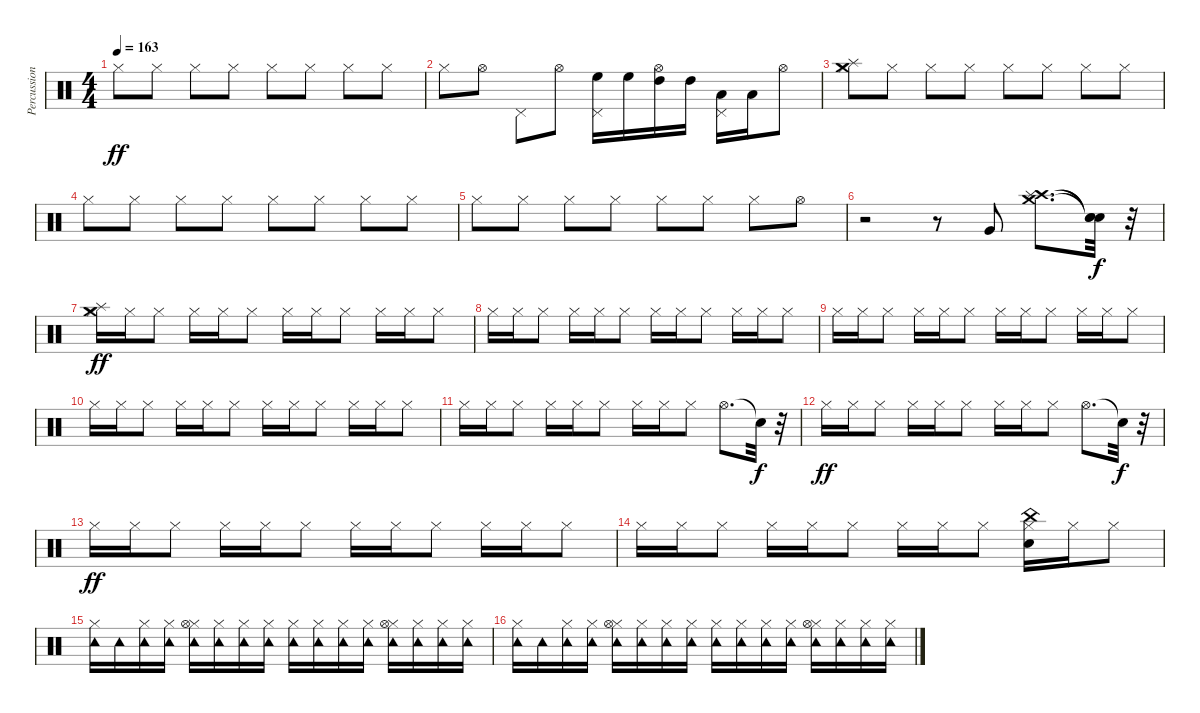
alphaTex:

\track ("Percussion (Standard Kit)" "Percussion") {instrument percussion}
\staff {score}
\articulation defaults
\ts (4 4)
\tempo 163
\clef neutral
\ks c "Hi-Hat (closed)".8{dy ff} "Hi-Hat (closed)".8 "Hi-Hat (closed)".8 "Hi-Hat (closed)".8 "Hi-Hat (closed)".8 "Hi-Hat (closed)".8 "Hi-Hat (closed)".8 "Hi-Hat (closed)".8
|
"Hi-Hat (closed)".8 "Hi-Hat (open)".8 "Pedal Hi-Hat (hit)".8 "Hi-Hat (open)".8 ("Pedal Hi-Hat (hit)" "High Floor Tom (hit)").16 "High Floor Tom (hit)".16 ("Hi-Hat (open)" "High Tom (hit)").16 "High Tom (hit)".16 ("Pedal Hi-Hat (hit)" "Low Tom (hit)").16 "Low Tom (hit)".16 "Hi-Hat (open)".8 |
("Hi-Hat (closed)" "Splash (hit)" "Crash medium (hit)").8 "Hi-Hat (closed)".8 "Hi-Hat (closed)".8 "Hi-Hat (closed)".8 "Hi-Hat (closed)".8 "Hi-Hat (closed)".8 "Hi-Hat (closed)".8 "Hi-Hat (closed)".8 |
"Hi-Hat (closed)".8 "Hi-Hat (closed)".8 "Hi-Hat (closed)".8 "Hi-Hat (closed)".8 "Hi-Hat (closed)".8 "Hi-Hat (closed)".8 "Hi-Hat (closed)".8 "Hi-Hat (closed)".8 |
"Hi-Hat (closed)".8 "Hi-Hat (closed)".8 "Hi-Hat (closed)".8 "Hi-Hat (closed)".8 "Hi-Hat (closed)".8 "Hi-Hat (closed)".8 "Hi-Hat (closed)".8 "Hi-Hat (open)".8 |
r.2 r.8 "Very Low Tom (hit)".8 ("Crash high (hit)" "Splash (hit)" "Crash medium (hit)").8{d} ("Snare (hit)"{t} "Snare (hit)"{t} "Snare (hit)"{t}).32{dy f} r.32 |
("Hi-Hat (closed)" "Splash (hit)" "Crash medium (hit)").16{dy ff} "Hi-Hat (closed)".16 "Hi-Hat (closed)".8 "Hi-Hat (closed)".16 "Hi-Hat (closed)".16 "Hi-Hat (closed)".8 "Hi-Hat (closed)".16 "Hi-Hat (closed)".16 "Hi-Hat (closed)".8 "Hi-Hat (closed)".16 "Hi-Hat (closed)".16 "Hi-Hat (closed)".8 |
"Hi-Hat (closed)".16 "Hi-Hat (closed)".16 "Hi-Hat (closed)".8 "Hi-Hat (closed)".16 "Hi-Hat (closed)".16 "Hi-Hat (closed)".8 "Hi-Hat (closed)".16 "Hi-Hat (closed)".16 "Hi-Hat (closed)".8 "Hi-Hat (closed)".16 "Hi-Hat (closed)".16 "Hi-Hat (closed)".8 |
"Hi-Hat (closed)".16 "Hi-Hat (closed)".16 "Hi-Hat (closed)".8 "Hi-Hat (closed)".16 "Hi-Hat (closed)".16 "Hi-Hat (closed)".8 "Hi-Hat (closed)".16 "Hi-Hat (closed)".16 "Hi-Hat (closed)".8 "Hi-Hat (closed)".16 "Hi-Hat (closed)".16 "Hi-Hat (closed)".8 |
"Hi-Hat (closed)".16 "Hi-Hat (closed)".16 "Hi-Hat (closed)".8 "Hi-Hat (closed)".16 "Hi-Hat (closed)".16 "Hi-Hat (closed)".8 "Hi-Hat (closed)".16 "Hi-Hat (closed)".16 "Hi-Hat (closed)".8 "Hi-Hat (closed)".16 "Hi-Hat (closed)".16 "Hi-Hat (closed)".8 |
"Hi-Hat (closed)".16 "Hi-Hat (closed)".16 "Hi-Hat (closed)".8 "Hi-Hat (closed)".16 "Hi-Hat (closed)".16 "Hi-Hat (closed)".8 "Hi-Hat (closed)".16 "Hi-Hat (closed)".16 "Hi-Hat (closed)".8 "Hi-Hat (open)".8{d} "Snare (hit)"{t}.32{dy f} r.32 |
"Hi-Hat (closed)".16{dy ff} "Hi-Hat (closed)".16 "Hi-Hat (closed)".8 "Hi-Hat (closed)".16 "Hi-Hat (closed)".16 "Hi-Hat (closed)".8 "Hi-Hat (closed)".16 "Hi-Hat (closed)".16 "Hi-Hat (closed)".8 "Hi-Hat (open)".8{d} "Snare (hit)"{t}.32{dy f} r.32 |
"Hi-Hat (closed)".16{dy ff} "Hi-Hat (closed)".16 "Hi-Hat (closed)".8 "Hi-Hat (closed)".16 "Hi-Hat (closed)".16 "Hi-Hat (closed)".8 "Hi-Hat (closed)".16 "Hi-Hat (closed)".16 "Hi-Hat (closed)".8 "Hi-Hat (closed)".16 "Hi-Hat (closed)".16 "Hi-Hat (closed)".8 |
"Hi-Hat (closed)".16 "Hi-Hat (closed)".16 "Hi-Hat (closed)".8 "Hi-Hat (closed)".16 "Hi-Hat (closed)".16 "Hi-Hat (closed)".8 "Hi-Hat (closed)".16 "Hi-Hat (closed)".16 "Hi-Hat (closed)".8 ("Electric Snare (hit)" "Hi-Hat (closed)" "China (hit)").16 "Hi-Hat (closed)".16 "Hi-Hat (closed)".8 |
("Hi-Hat (closed)" "Tambourine (hit)").16 "Tambourine (hit)".16 ("Hi-Hat (closed)" "Tambourine (hit)").16 ("Hi-Hat (closed)" "Tambourine (hit)").16 ("Hi-Hat (closed)" "Hi-Hat (open)" "Tambourine (hit)").16 ("Hi-Hat (closed)" "Tambourine (hit)").16 ("Hi-Hat (closed)" "Tambourine (hit)").16 ("Hi-Hat (closed)" "Tambourine (hit)").16 ("Hi-Hat (closed)" "Tambourine (hit)").16 ("Hi-Hat (closed)" "Tambourine (hit)").16 ("Hi-Hat (closed)" "Tambourine (hit)").16 ("Hi-Hat (closed)" "Tambourine (hit)").16 ("Hi-Hat (closed)" "Hi-Hat (open)" "Tambourine (hit)").16 ("Hi-Hat (closed)" "Tambourine (hit)").16 ("Hi-Hat (closed)" "Tambourine (hit)").16 ("Hi-Hat (closed)" "Tambourine (hit)").16 |
("Hi-Hat (closed)" "Tambourine (hit)").16 "Tambourine (hit)".16 ("Hi-Hat (closed)" "Tambourine (hit)").16 ("Hi-Hat (closed)" "Tambourine (hit)").16 ("Hi-Hat (closed)" "Hi-Hat (open)" "Tambourine (hit)").16 ("Hi-Hat (closed)" "Tambourine (hit)").16 ("Hi-Hat (closed)" "Tambourine (hit)").16 ("Hi-Hat (closed)" "Tambourine (hit)").16 ("Hi-Hat (closed)" "Tambourine (hit)").16 ("Hi-Hat (closed)" "Tambourine (hit)").16 ("Hi-Hat (closed)" "Tambourine (hit)").16 ("Hi-Hat (closed)" "Tambourine (hit)").16 ("Hi-Hat (closed)" "Hi-Hat (open)" "Tambourine (hit)").16 ("Hi-Hat (closed)" "Tambourine (hit)").16 ("Hi-Hat (closed)" "Tambourine (hit)").16 ("Hi-Hat (closed)" "Tambourine (hit)").16
